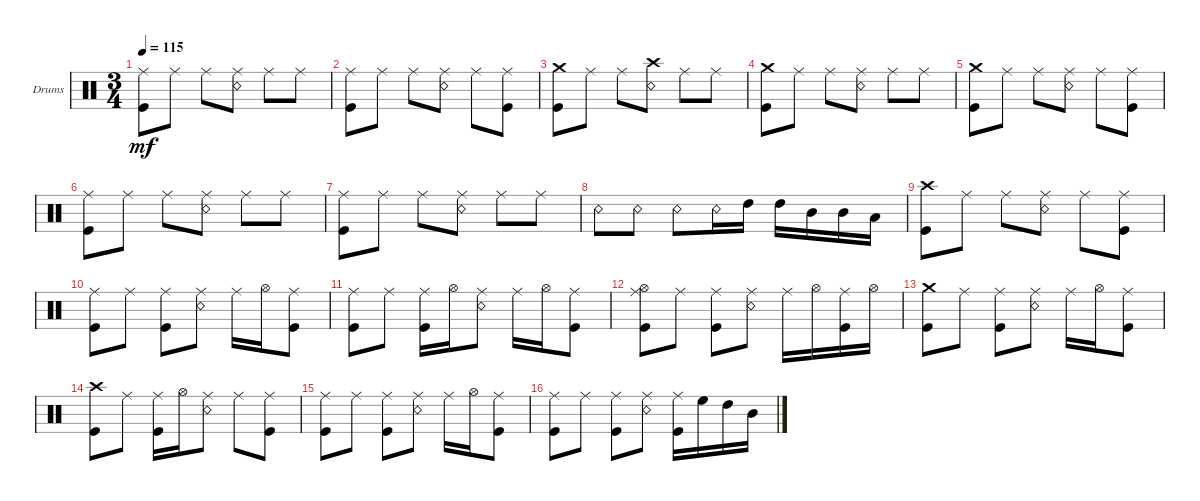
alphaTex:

\defaultSystemsLayout 4
\bracketExtendMode groupsimilarinstruments
\firstSystemTrackNameOrientation horizontal
\otherSystemsTrackNameOrientation horizontal
\track ("Drumkit" "Drums") {multiBarRest instrument percussion}
\staff {score}
\articulation defaults
\ts (3 4)
\tempo 115
\clef neutral
\ks aminor
("Kick (hit)" "Ride (middle)").8{dy mf} "Ride (middle)".8 "Ride (middle)".8 ("Ride (middle)" "Snare (rim shot)").8 "Ride (middle)".8 "Ride (middle)".8 |
("Kick (hit)" "Ride (middle)").8 "Ride (middle)".8 "Ride (middle)".8 ("Ride (middle)" "Snare (rim shot)").8 "Ride (middle)".8 ("Ride (middle)" "Kick (hit)").8 |
("Kick (hit)" "Crash medium (hit)").8 "Ride (middle)".8 "Ride (middle)".8 ("Snare (rim shot)" "Crash high (hit)").8 "Ride (middle)".8 "Ride (middle)".8 |
("Kick (hit)" "Crash medium (hit)").8 "Ride (middle)".8 "Ride (middle)".8 ("Snare (rim shot)" "Ride (middle)").8 "Ride (middle)".8 "Ride (middle)".8 |
("Kick (hit)" "Crash medium (hit)").8 "Ride (middle)".8 "Ride (middle)".8 ("Ride (middle)" "Snare (rim shot)").8 "Ride (middle)".8 ("Ride (middle)" "Kick (hit)").8 |
("Kick (hit)" "Ride (middle)").8 "Ride (middle)".8 "Ride (middle)".8 ("Ride (middle)" "Snare (rim shot)").8 "Ride (middle)".8 "Ride (middle)".8 |
("Kick (hit)" "Ride (middle)").8 "Ride (middle)".8 "Ride (middle)".8 ("Ride (middle)" "Snare (rim shot)").8 "Ride (middle)".8 "Ride (middle)".8 |
"Snare (rim shot)".8 "Snare (rim shot)".8 "Snare (rim shot)".8 "Snare (rim shot)".16 "High Tom (hit)".16 "High Tom (hit)".16 "Mid Tom (hit)".16 "Mid Tom (hit)".16 "Low Tom (hit)".16 |
("Kick (hit)" "Crash high (hit)").8 "Ride (middle)".8 "Ride (middle)".8 ("Ride (middle)" "Snare (rim shot)").8 "Ride (middle)".8 ("Ride (middle)" "Kick (hit)").8 |
("Kick (hit)" "Ride (middle)").8 "Ride (middle)".8 ("Ride (middle)" "Kick (hit)").8 ("Ride (middle)" "Snare (rim shot)").8 "Ride (middle)".16 "Hi-Hat (open)".16 ("Ride (middle)" "Kick (hit)").8 |
("Kick (hit)" "Ride (middle)").8 "Ride (middle)".8 ("Ride (middle)" "Kick (hit)").16 "Hi-Hat (open)".16 ("Ride (middle)" "Snare (rim shot)").8 "Ride (middle)".16 "Hi-Hat (open)".16 ("Ride (middle)" "Kick (hit)").8 |
("Kick (hit)" "Ride (middle)" "Hi-Hat (open)").8 "Ride (middle)".8 ("Ride (middle)" "Kick (hit)").8 ("Ride (middle)" "Snare (rim shot)").8 "Ride (middle)".16 "Hi-Hat (open)".16 ("Ride (middle)" "Kick (hit)").16 "Hi-Hat (open)".16 |
("Kick (hit)" "Crash medium (hit)").8 "Ride (middle)".8 ("Ride (middle)" "Kick (hit)").8 ("Ride (middle)" "Snare (rim shot)").8 "Ride (middle)".16 "Hi-Hat (open)".16 ("Ride (middle)" "Kick (hit)").8 |
("Kick (hit)" "Crash high (hit)").8 "Ride (middle)".8 ("Ride (middle)" "Kick (hit)").16 "Hi-Hat (open)".16 ("Ride (middle)" "Snare (rim shot)").8 "Ride (middle)".8 ("Ride (middle)" "Kick (hit)").8 |
("Ride (middle)" "Kick (hit)").8 "Ride (middle)".8 ("Ride (middle)" "Kick (hit)").8 ("Ride (middle)" "Snare (rim shot)").8 "Ride (middle)".16 "Hi-Hat (open)".16 ("Ride (middle)" "Kick (hit)").8 |
("Kick (hit)" "Ride (middle)").8 "Ride (middle)".8 ("Ride (middle)" "Kick (hit)").8 ("Ride (middle)" "Snare (rim shot)").8 ("Kick (hit)" "Ride (middle)").16 "High Floor Tom (hit)".16 "High Tom (hit)".16 "Mid Tom (hit)".16
